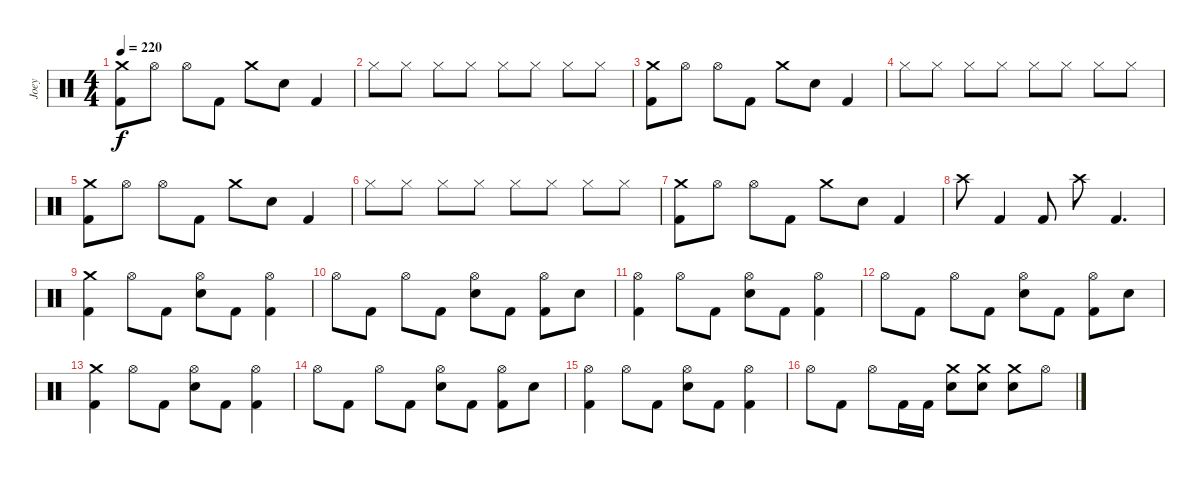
\track ("Joey" "Joey") {instrument percussion}
\staff {score}
\articulation defaults
\ts (4 4)
\tempo 220
\clef neutral
\ks c
("Crash medium (hit)" "Kick (hit) 2").8{dy f} "Hi-Hat (open)".8 "Hi-Hat (open)".8 "Kick (hit) 2".8 "Crash medium (hit)".8 "Electric Snare (hit)".8 "Kick (hit) 2".4 |
"Hi-Hat (closed)".8 "Hi-Hat (closed)".8 "Hi-Hat (closed)".8 "Hi-Hat (closed)".8 "Hi-Hat (closed)".8 "Hi-Hat (closed)".8 "Hi-Hat (closed)".8 "Hi-Hat (closed)".8 |
("Crash medium (hit)" "Kick (hit) 2").8 "Hi-Hat (open)".8 "Hi-Hat (open)".8 "Kick (hit) 2".8 "Crash medium (hit)".8 "Electric Snare (hit)".8 "Kick (hit) 2".4 |
"Hi-Hat (closed)".8 "Hi-Hat (closed)".8 "Hi-Hat (closed)".8 "Hi-Hat (closed)".8 "Hi-Hat (closed)".8 "Hi-Hat (closed)".8 "Hi-Hat (closed)".8 "Hi-Hat (closed)".8 |
("Crash medium (hit)" "Kick (hit) 2").8 "Hi-Hat (open)".8 "Hi-Hat (open)".8 "Kick (hit) 2".8 "Crash medium (hit)".8 "Electric Snare (hit)".8 "Kick (hit) 2".4 |
"Hi-Hat (closed)".8 "Hi-Hat (closed)".8 "Hi-Hat (closed)".8 "Hi-Hat (closed)".8 "Hi-Hat (closed)".8 "Hi-Hat (closed)".8 "Hi-Hat (closed)".8 "Hi-Hat (closed)".8 |
("Crash medium (hit)" "Kick (hit) 2").8 "Hi-Hat (open)".8 "Hi-Hat (open)".8 "Kick (hit) 2".8 "Crash medium (hit)".8 "Electric Snare (hit)".8 "Kick (hit) 2".4 |
"Crash high (hit)".8 "Kick (hit) 2".4 "Kick (hit) 2".8 "Crash high (hit)".8 "Kick (hit) 2".4{d} |
("Crash medium (hit)" "Kick (hit) 2").4 "Hi-Hat (open)".8 "Kick (hit) 2".8 ("Hi-Hat (open)" "Electric Snare (hit)").8 "Kick (hit) 2".8 ("Hi-Hat (open)" "Kick (hit) 2").4 |
"Hi-Hat (open)".8 "Kick (hit) 2".8 "Hi-Hat (open)".8 "Kick (hit) 2".8 ("Hi-Hat (open)" "Electric Snare (hit)").8 "Kick (hit) 2".8 ("Hi-Hat (open)" "Kick (hit) 2").8 "Electric Snare (hit)".8 |
("Hi-Hat (open)" "Kick (hit) 2").4 "Hi-Hat (open)".8 "Kick (hit) 2".8 ("Hi-Hat (open)" "Electric Snare (hit)").8 "Kick (hit) 2".8 ("Hi-Hat (open)" "Kick (hit) 2").4 |
"Hi-Hat (open)".8 "Kick (hit) 2".8 "Hi-Hat (open)".8 "Kick (hit) 2".8 ("Hi-Hat (open)" "Electric Snare (hit)").8 "Kick (hit) 2".8 ("Hi-Hat (open)" "Kick (hit) 2").8 "Electric Snare (hit)".8 |
("Crash medium (hit)" "Kick (hit) 2").4 "Hi-Hat (open)".8 "Kick (hit) 2".8 ("Hi-Hat (open)" "Electric Snare (hit)").8 "Kick (hit) 2".8 ("Hi-Hat (open)" "Kick (hit) 2").4 |
"Hi-Hat (open)".8 "Kick (hit) 2".8 "Hi-Hat (open)".8 "Kick (hit) 2".8 ("Hi-Hat (open)" "Electric Snare (hit)").8 "Kick (hit) 2".8 ("Hi-Hat (open)" "Kick (hit) 2").8 "Electric Snare (hit)".8 |
("Hi-Hat (open)" "Kick (hit) 2").4 "Hi-Hat (open)".8 "Kick (hit) 2".8 ("Hi-Hat (open)" "Electric Snare (hit)").8 "Kick (hit) 2".8 ("Hi-Hat (open)" "Kick (hit) 2").4 |
"Hi-Hat (open)".8 "Kick (hit) 2".8 "Hi-Hat (open)".8 "Kick (hit) 2".16 "Kick (hit) 2".16 ("Crash medium (hit)" "Electric Snare (hit)").8 ("Crash medium (hit)" "Electric Snare (hit)").8 ("Crash medium (hit)" "Electric Snare (hit)").8 "Hi-Hat (open)".8
